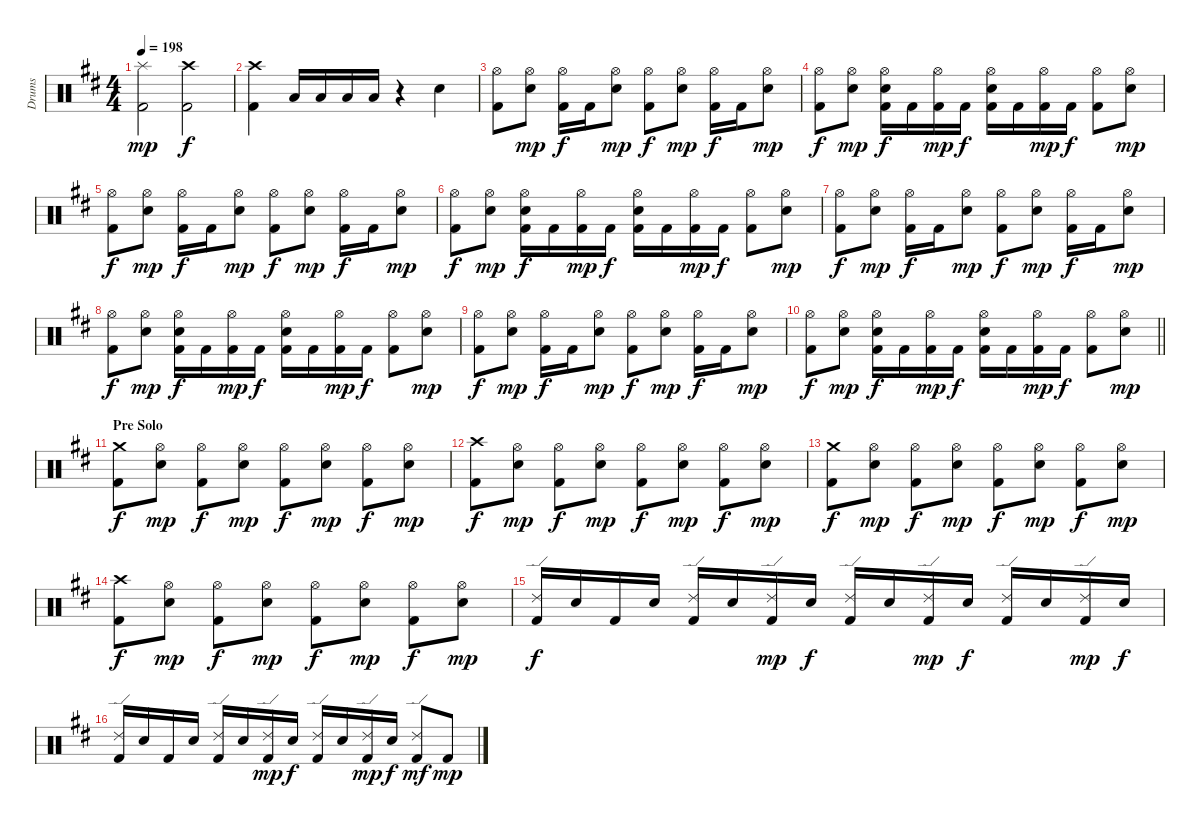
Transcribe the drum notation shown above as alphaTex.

\track ("Drums" "Drums") {instrument percussion}
\staff {score}
\articulation defaults
\ts (4 4)
\tempo 198
\clef neutral
\ks d
("Splash (hit)" "Kick (hit) 2").2{dy mp} ("Crash high (hit)" "Kick (hit) 2").2{dy f} |
("Crash high (hit)" "Kick (hit) 2").4 "Low Tom (hit)".16 "Low Tom (hit)".16 "Low Tom (hit)".16 "Low Tom (hit)".16 r.4 "Snare (hit) 2".4 |
("Hi-Hat (open)" "Kick (hit) 2").8 ("Hi-Hat (open)" "Snare (hit) 2").8{dy mp} ("Hi-Hat (open)" "Kick (hit) 2").16{dy f} "Kick (hit) 2".16 ("Hi-Hat (open)" "Snare (hit) 2").8{dy mp} ("Hi-Hat (open)" "Kick (hit) 2").8{dy f} ("Hi-Hat (open)" "Snare (hit) 2").8{dy mp} ("Hi-Hat (open)" "Kick (hit) 2").16{dy f} "Kick (hit) 2".16 ("Hi-Hat (open)" "Snare (hit) 2").8{dy mp} |
("Hi-Hat (open)" "Kick (hit) 2").8{dy f} ("Hi-Hat (open)" "Snare (hit) 2").8{dy mp} ("Hi-Hat (open)" "Snare (hit) 2" "Kick (hit) 2").16{dy f} "Kick (hit) 2".16 ("Hi-Hat (open)" "Kick (hit) 2").16{dy mp} "Kick (hit) 2".16{dy f} ("Hi-Hat (open)" "Snare (hit) 2" "Kick (hit) 2").16 "Kick (hit) 2".16 ("Hi-Hat (open)" "Kick (hit) 2").16{dy mp} "Kick (hit) 2".16{dy f} ("Hi-Hat (open)" "Kick (hit) 2").8 ("Hi-Hat (open)" "Snare (hit) 2").8{dy mp} |
("Hi-Hat (open)" "Kick (hit) 2").8{dy f} ("Hi-Hat (open)" "Snare (hit) 2").8{dy mp} ("Hi-Hat (open)" "Kick (hit) 2").16{dy f} "Kick (hit) 2".16 ("Hi-Hat (open)" "Snare (hit) 2").8{dy mp} ("Hi-Hat (open)" "Kick (hit) 2").8{dy f} ("Hi-Hat (open)" "Snare (hit) 2").8{dy mp} ("Hi-Hat (open)" "Kick (hit) 2").16{dy f} "Kick (hit) 2".16 ("Hi-Hat (open)" "Snare (hit) 2").8{dy mp} |
("Hi-Hat (open)" "Kick (hit) 2").8{dy f} ("Hi-Hat (open)" "Snare (hit) 2").8{dy mp} ("Hi-Hat (open)" "Snare (hit) 2" "Kick (hit) 2").16{dy f} "Kick (hit) 2".16 ("Hi-Hat (open)" "Kick (hit) 2").16{dy mp} "Kick (hit) 2".16{dy f} ("Hi-Hat (open)" "Snare (hit) 2" "Kick (hit) 2").16 "Kick (hit) 2".16 ("Hi-Hat (open)" "Kick (hit) 2").16{dy mp} "Kick (hit) 2".16{dy f} ("Hi-Hat (open)" "Kick (hit) 2").8 ("Hi-Hat (open)" "Snare (hit) 2").8{dy mp} |
("Hi-Hat (open)" "Kick (hit) 2").8{dy f} ("Hi-Hat (open)" "Snare (hit) 2").8{dy mp} ("Hi-Hat (open)" "Kick (hit) 2").16{dy f} "Kick (hit) 2".16 ("Hi-Hat (open)" "Snare (hit) 2").8{dy mp} ("Hi-Hat (open)" "Kick (hit) 2").8{dy f} ("Hi-Hat (open)" "Snare (hit) 2").8{dy mp} ("Hi-Hat (open)" "Kick (hit) 2").16{dy f} "Kick (hit) 2".16 ("Hi-Hat (open)" "Snare (hit) 2").8{dy mp} |
("Hi-Hat (open)" "Kick (hit) 2").8{dy f} ("Hi-Hat (open)" "Snare (hit) 2").8{dy mp} ("Hi-Hat (open)" "Snare (hit) 2" "Kick (hit) 2").16{dy f} "Kick (hit) 2".16 ("Hi-Hat (open)" "Kick (hit) 2").16{dy mp} "Kick (hit) 2".16{dy f} ("Hi-Hat (open)" "Snare (hit) 2" "Kick (hit) 2").16 "Kick (hit) 2".16 ("Hi-Hat (open)" "Kick (hit) 2").16{dy mp} "Kick (hit) 2".16{dy f} ("Hi-Hat (open)" "Kick (hit) 2").8 ("Hi-Hat (open)" "Snare (hit) 2").8{dy mp} |
("Hi-Hat (open)" "Kick (hit) 2").8{dy f} ("Hi-Hat (open)" "Snare (hit) 2").8{dy mp} ("Hi-Hat (open)" "Kick (hit) 2").16{dy f} "Kick (hit) 2".16 ("Hi-Hat (open)" "Snare (hit) 2").8{dy mp} ("Hi-Hat (open)" "Kick (hit) 2").8{dy f} ("Hi-Hat (open)" "Snare (hit) 2").8{dy mp} ("Hi-Hat (open)" "Kick (hit) 2").16{dy f} "Kick (hit) 2".16 ("Hi-Hat (open)" "Snare (hit) 2").8{dy mp} |
\barLineRight lightlight
("Hi-Hat (open)" "Kick (hit) 2").8{dy f} ("Hi-Hat (open)" "Snare (hit) 2").8{dy mp} ("Hi-Hat (open)" "Snare (hit) 2" "Kick (hit) 2").16{dy f} "Kick (hit) 2".16 ("Hi-Hat (open)" "Kick (hit) 2").16{dy mp} "Kick (hit) 2".16{dy f} ("Hi-Hat (open)" "Snare (hit) 2" "Kick (hit) 2").16 "Kick (hit) 2".16 ("Hi-Hat (open)" "Kick (hit) 2").16{dy mp} "Kick (hit) 2".16{dy f} ("Hi-Hat (open)" "Kick (hit) 2").8 ("Hi-Hat (open)" "Snare (hit) 2").8{dy mp} |
\section ("" "Pre Solo")
("Crash medium (hit)" "Kick (hit) 2").8{dy f} ("Hi-Hat (open)" "Snare (hit) 2").8{dy mp} ("Hi-Hat (open)" "Kick (hit) 2").8{dy f} ("Hi-Hat (open)" "Snare (hit) 2").8{dy mp} ("Hi-Hat (open)" "Kick (hit) 2").8{dy f} ("Hi-Hat (open)" "Snare (hit) 2").8{dy mp} ("Hi-Hat (open)" "Kick (hit) 2").8{dy f} ("Hi-Hat (open)" "Snare (hit) 2").8{dy mp} |
("Crash high (hit)" "Kick (hit) 2").8{dy f} ("Hi-Hat (open)" "Snare (hit) 2").8{dy mp} ("Hi-Hat (open)" "Kick (hit) 2").8{dy f} ("Hi-Hat (open)" "Snare (hit) 2").8{dy mp} ("Hi-Hat (open)" "Kick (hit) 2").8{dy f} ("Hi-Hat (open)" "Snare (hit) 2").8{dy mp} ("Hi-Hat (open)" "Kick (hit) 2").8{dy f} ("Hi-Hat (open)" "Snare (hit) 2").8{dy mp} |
("Crash medium (hit)" "Kick (hit) 2").8{dy f} ("Hi-Hat (open)" "Snare (hit) 2").8{dy mp} ("Hi-Hat (open)" "Kick (hit) 2").8{dy f} ("Hi-Hat (open)" "Snare (hit) 2").8{dy mp} ("Hi-Hat (open)" "Kick (hit) 2").8{dy f} ("Hi-Hat (open)" "Snare (hit) 2").8{dy mp} ("Hi-Hat (open)" "Kick (hit) 2").8{dy f} ("Hi-Hat (open)" "Snare (hit) 2").8{dy mp} |
("Crash high (hit)" "Kick (hit) 2").8{dy f} ("Hi-Hat (open)" "Snare (hit) 2").8{dy mp} ("Hi-Hat (open)" "Kick (hit) 2").8{dy f} ("Hi-Hat (open)" "Snare (hit) 2").8{dy mp} ("Hi-Hat (open)" "Kick (hit) 2").8{dy f} ("Hi-Hat (open)" "Snare (hit) 2").8{dy mp} ("Hi-Hat (open)" "Kick (hit) 2").8{dy f} ("Hi-Hat (open)" "Snare (hit) 2").8{dy mp} |
("Ride (edge) 2" "Kick (hit) 2").16{dy f} "Snare (hit) 2".16 "Kick (hit) 2".16 "Snare (hit) 2".16 ("Ride (edge) 2" "Kick (hit) 2").16 "Snare (hit) 2".16 ("Ride (edge) 2" "Kick (hit) 2").16{dy mp} "Snare (hit) 2".16{dy f} ("Ride (edge) 2" "Kick (hit) 2").16 "Snare (hit) 2".16 ("Ride (edge) 2" "Kick (hit) 2").16{dy mp} "Snare (hit) 2".16{dy f} ("Ride (edge) 2" "Kick (hit) 2").16 "Snare (hit) 2".16 ("Ride (edge) 2" "Kick (hit) 2").16{dy mp} "Snare (hit) 2".16{dy f} |
("Ride (edge) 2" "Kick (hit) 2").16 "Snare (hit) 2".16 "Kick (hit) 2".16 "Snare (hit) 2".16 ("Ride (edge) 2" "Kick (hit) 2").16 "Snare (hit) 2".16 ("Ride (edge) 2" "Kick (hit) 2").16{dy mp} "Snare (hit) 2".16{dy f} ("Ride (edge) 2" "Kick (hit) 2").16 "Snare (hit) 2".16 ("Ride (edge) 2" "Kick (hit) 2").16{dy mp} "Snare (hit) 2".16{dy f} ("Ride (edge) 2" "Kick (hit) 2").8{dy mf} "Kick (hit) 2".8{dy mp}
